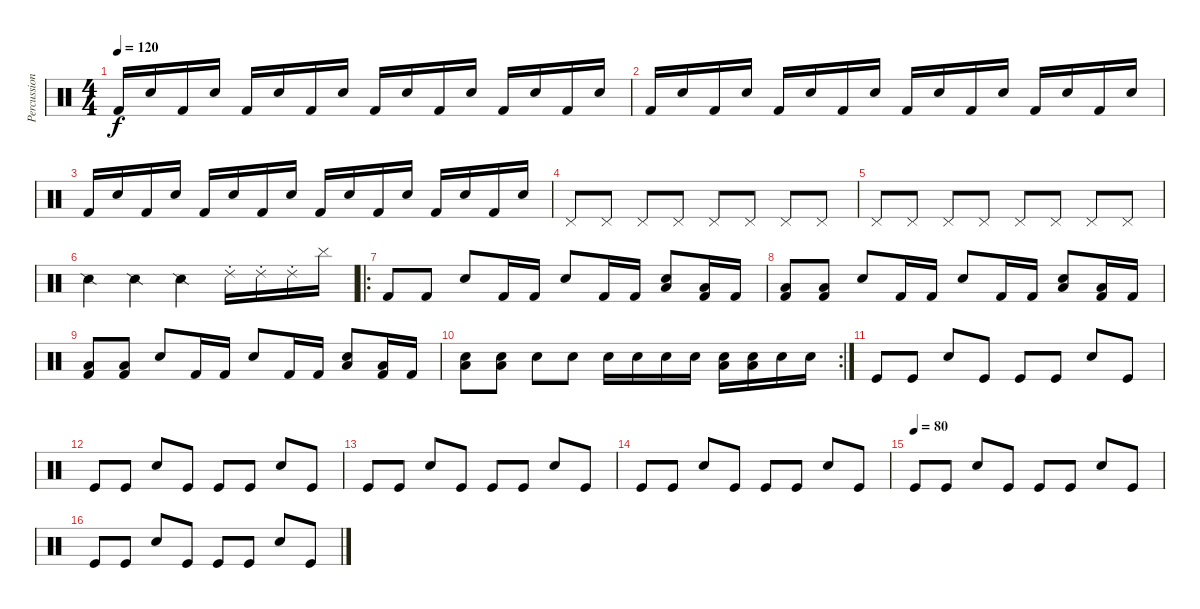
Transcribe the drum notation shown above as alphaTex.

\track ("Percussions" "Percussion") {instrument percussion}
\staff {score}
\articulation defaults
\ts (4 4)
\tempo 120
\clef neutral
\ks c "Kick (hit) 2".16{dy f} "Snare (hit) 2".16 "Kick (hit) 2".16 "Snare (hit) 2".16 "Kick (hit) 2".16 "Snare (hit) 2".16 "Kick (hit) 2".16 "Snare (hit) 2".16 "Kick (hit) 2".16 "Snare (hit) 2".16 "Kick (hit) 2".16 "Snare (hit) 2".16 "Kick (hit) 2".16 "Snare (hit) 2".16 "Kick (hit) 2".16 "Snare (hit) 2".16
|
"Kick (hit) 2".16 "Snare (hit) 2".16 "Kick (hit) 2".16 "Snare (hit) 2".16 "Kick (hit) 2".16 "Snare (hit) 2".16 "Kick (hit) 2".16 "Snare (hit) 2".16 "Kick (hit) 2".16 "Snare (hit) 2".16 "Kick (hit) 2".16 "Snare (hit) 2".16 "Kick (hit) 2".16 "Snare (hit) 2".16 "Kick (hit) 2".16 "Snare (hit) 2".16 |
"Kick (hit) 2".16 "Snare (hit) 2".16 "Kick (hit) 2".16 "Snare (hit) 2".16 "Kick (hit) 2".16 "Snare (hit) 2".16 "Kick (hit) 2".16 "Snare (hit) 2".16 "Kick (hit) 2".16 "Snare (hit) 2".16 "Kick (hit) 2".16 "Snare (hit) 2".16 "Kick (hit) 2".16 "Snare (hit) 2".16 "Kick (hit) 2".16 "Snare (hit) 2".16 |
"Pedal Hi-Hat (hit)".8 "Pedal Hi-Hat (hit)".8 "Pedal Hi-Hat (hit)".8 "Pedal Hi-Hat (hit)".8 "Pedal Hi-Hat (hit)".8 "Pedal Hi-Hat (hit)".8 "Pedal Hi-Hat (hit)".8 "Pedal Hi-Hat (hit)".8 |
"Pedal Hi-Hat (hit)".8 "Pedal Hi-Hat (hit)".8 "Pedal Hi-Hat (hit)".8 "Pedal Hi-Hat (hit)".8 "Pedal Hi-Hat (hit)".8 "Pedal Hi-Hat (hit)".8 "Pedal Hi-Hat (hit)".8 "Pedal Hi-Hat (hit)".8 |
"Snare (side stick) 2".4 "Snare (side stick) 2".4 "Snare (side stick) 2".4 "Ride (choke) 2".16 "Ride (choke) 2".16 "Ride (choke) 2".16 "Cymbal (hit)".16 |
\ro "Kick (hit) 2".8 "Kick (hit) 2".8 "Snare (hit) 2".8 "Kick (hit) 2".16 "Kick (hit) 2".16 "Snare (hit) 2".8 "Kick (hit) 2".16 "Kick (hit) 2".16
("Snare (hit) 2" "Low Tom (hit)").8 ("Kick (hit) 2" "Low Tom (hit)").16 "Kick (hit) 2".16 |
("Kick (hit) 2" "Low Tom (hit)").8 ("Kick (hit) 2" "Low Tom (hit)").8 "Snare (hit) 2".8 "Kick (hit) 2".16 "Kick (hit) 2".16 "Snare (hit) 2".8 "Kick (hit) 2".16 "Kick (hit) 2".16 ("Snare (hit) 2" "Low Tom (hit)").8 ("Kick (hit) 2" "Low Tom (hit)").16 "Kick (hit) 2".16 |
("Kick (hit) 2" "Low Tom (hit)").8 ("Kick (hit) 2" "Low Tom (hit)").8 "Snare (hit) 2".8 "Kick (hit) 2".16 "Kick (hit) 2".16 "Snare (hit) 2".8 "Kick (hit) 2".16 "Kick (hit) 2".16 ("Snare (hit) 2" "Low Tom (hit)").8 ("Kick (hit) 2" "Low Tom (hit)").16 "Kick (hit) 2".16 |
\rc 2
("Snare (hit) 2" "Low Tom (hit)").8 ("Snare (hit) 2" "Low Tom (hit)").8 "Snare (hit) 2".8 "Snare (hit) 2".8 "Snare (hit) 2".16 "Snare (hit) 2".16 "Snare (hit) 2".16 "Snare (hit) 2".16 ("Snare (hit) 2" "Low Tom (hit)").16 ("Snare (hit) 2" "Low Tom (hit)").16 "Snare (hit) 2".16 "Snare (hit) 2".16 |
"Kick (hit)".8 "Kick (hit)".8 "Electric Snare (hit)".8 "Kick (hit)".8 "Kick (hit)".8 "Kick (hit)".8 "Electric Snare (hit)".8 "Kick (hit)".8 |
"Kick (hit)".8 "Kick (hit)".8 "Electric Snare (hit)".8 "Kick (hit)".8 "Kick (hit)".8 "Kick (hit)".8 "Electric Snare (hit)".8 "Kick (hit)".8 |
"Kick (hit)".8 "Kick (hit)".8 "Electric Snare (hit)".8 "Kick (hit)".8 "Kick (hit)".8 "Kick (hit)".8 "Electric Snare (hit)".8 "Kick (hit)".8 |
"Kick (hit)".8 "Kick (hit)".8 "Electric Snare (hit)".8 "Kick (hit)".8 "Kick (hit)".8 "Kick (hit)".8 "Electric Snare (hit)".8 "Kick (hit)".8 |
\tempo (80)
"Kick (hit)".8 "Kick (hit)".8 "Electric Snare (hit)".8 "Kick (hit)".8 "Kick (hit)".8 "Kick (hit)".8 "Electric Snare (hit)".8 "Kick (hit)".8 |
"Kick (hit)".8 "Kick (hit)".8 "Electric Snare (hit)".8 "Kick (hit)".8 "Kick (hit)".8 "Kick (hit)".8 "Electric Snare (hit)".8 "Kick (hit)".8
